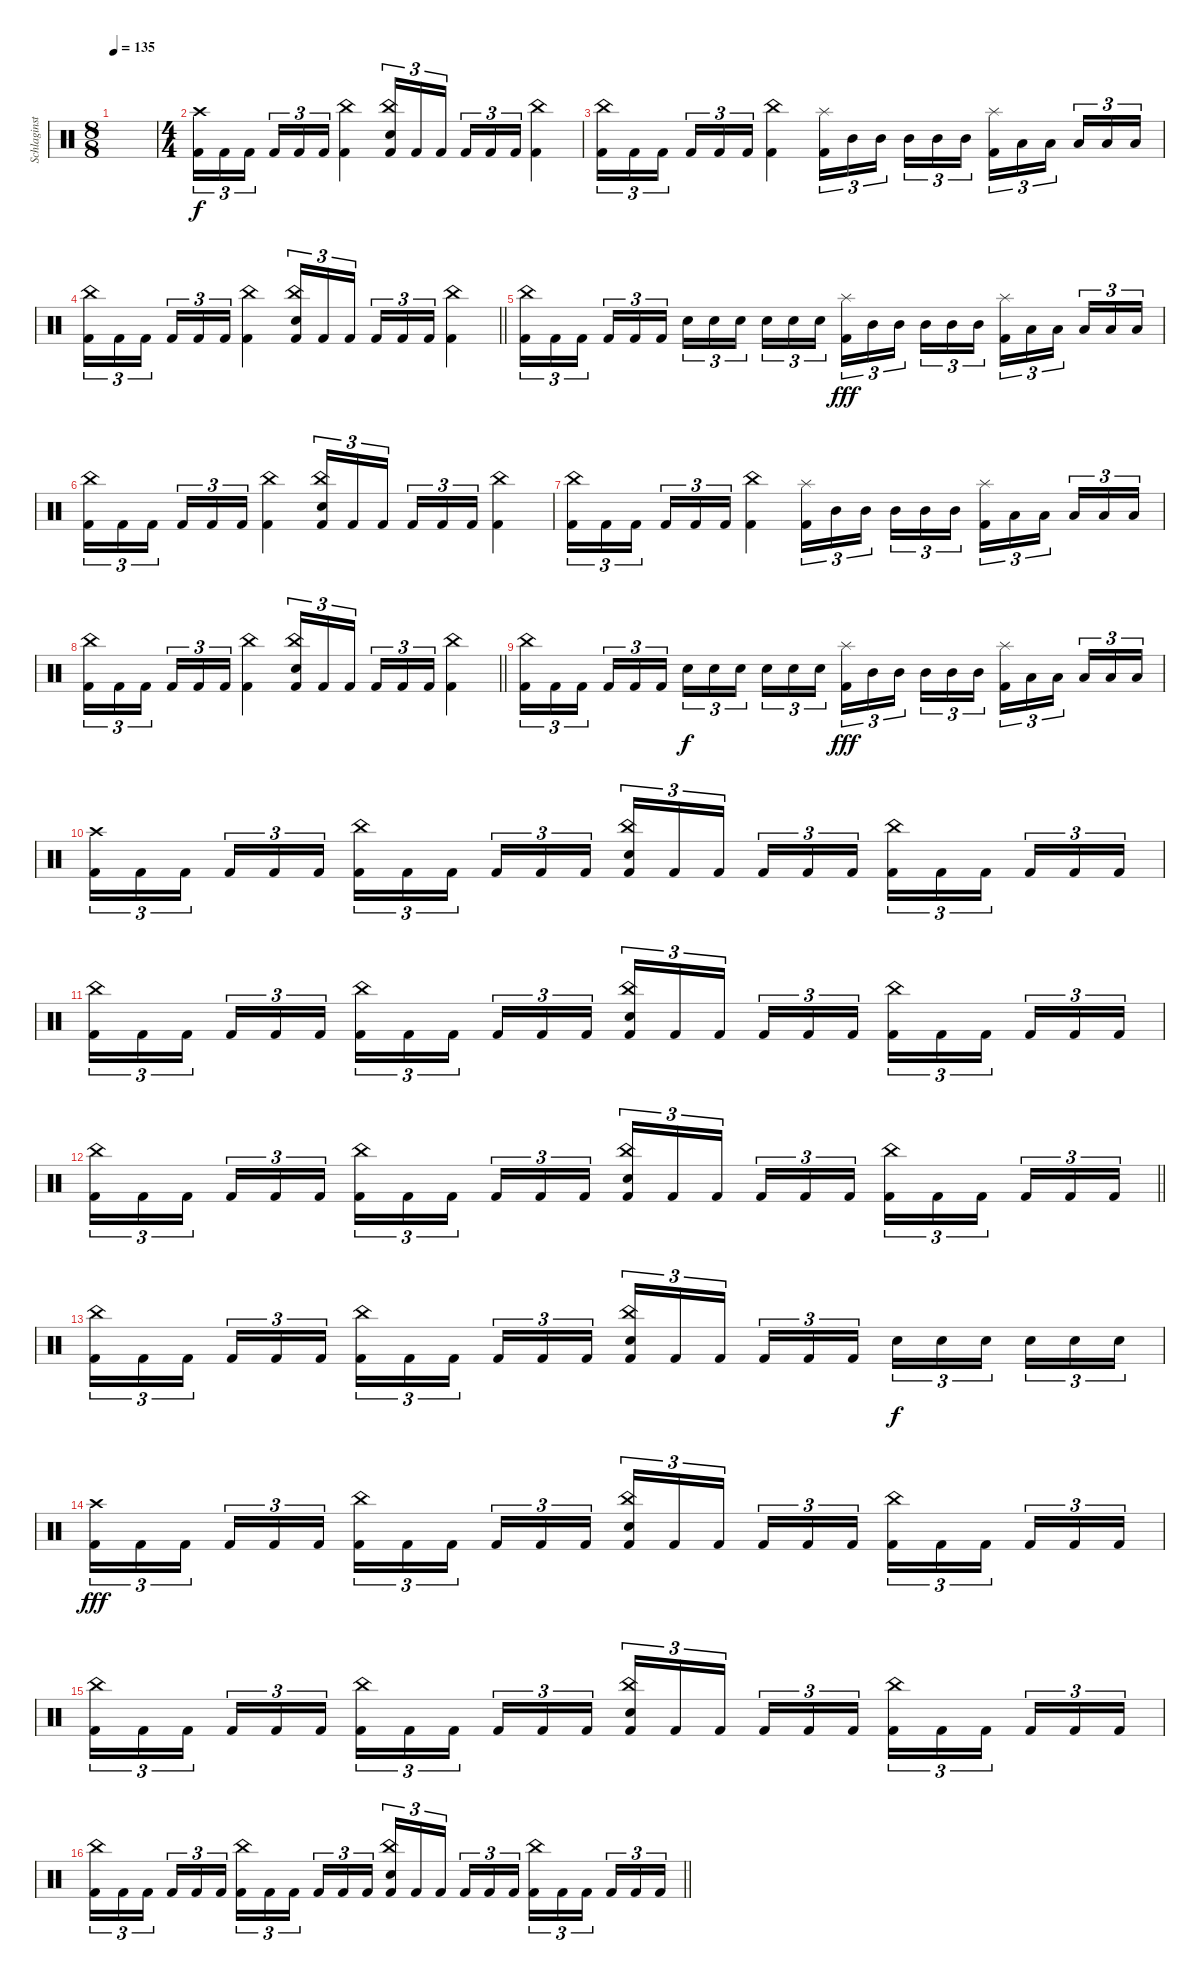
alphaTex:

\track ("Schlaginstrumente - Auswahl" "Schlaginst") {instrument percussion}
\staff {score}
\articulation defaults
\ts (8 8)
\tempo 135
\clef neutral
\ks c
|
\ts (4 4)
("Crash high (hit)" "Kick (hit) 2").16{tu (3 2)} "Kick (hit) 2".16{tu (3 2)} "Kick (hit) 2".16{tu (3 2) beam splitsecondary} "Kick (hit) 2".16{tu (3 2)} "Kick (hit) 2".16{tu (3 2)} "Kick (hit) 2".16{tu (3 2)} ("China (hit)" "Kick (hit) 2").4 ("China (hit)" "Snare (hit) 2" "Kick (hit) 2").16{tu (3 2)} "Kick (hit) 2".16{tu (3 2)} "Kick (hit) 2".16{tu (3 2) beam splitsecondary} "Kick (hit) 2".16{tu (3 2)} "Kick (hit) 2".16{tu (3 2)} "Kick (hit) 2".16{tu (3 2)} ("China (hit)" "Kick (hit) 2").4 |
("China (hit)" "Kick (hit) 2").16{tu (3 2)} "Kick (hit) 2".16{tu (3 2)} "Kick (hit) 2".16{tu (3 2) beam splitsecondary} "Kick (hit) 2".16{tu (3 2)} "Kick (hit) 2".16{tu (3 2)} "Kick (hit) 2".16{tu (3 2)} ("China (hit)" "Kick (hit) 2").4 ("Splash (hit)" "Kick (hit) 2").16{tu (3 2)} "Mid Tom (hit)".16{tu (3 2)} "Mid Tom (hit)".16{tu (3 2) beam splitsecondary} "Mid Tom (hit)".16{tu (3 2)} "Mid Tom (hit)".16{tu (3 2)} "Mid Tom (hit)".16{tu (3 2)} ("Splash (hit)" "Kick (hit) 2").16{tu (3 2)} "Low Tom (hit)".16{tu (3 2)} "Low Tom (hit)".16{tu (3 2) beam splitsecondary} "Low Tom (hit)".16{tu (3 2)} "Low Tom (hit)".16{tu (3 2)} "Low Tom (hit)".16{tu (3 2)} |
\barLineRight lightlight
("China (hit)" "Kick (hit) 2").16{tu (3 2)} "Kick (hit) 2".16{tu (3 2)} "Kick (hit) 2".16{tu (3 2) beam splitsecondary} "Kick (hit) 2".16{tu (3 2)} "Kick (hit) 2".16{tu (3 2)} "Kick (hit) 2".16{tu (3 2)} ("China (hit)" "Kick (hit) 2").4 ("China (hit)" "Snare (hit) 2" "Kick (hit) 2").16{tu (3 2)} "Kick (hit) 2".16{tu (3 2)} "Kick (hit) 2".16{tu (3 2) beam splitsecondary} "Kick (hit) 2".16{tu (3 2)} "Kick (hit) 2".16{tu (3 2)} "Kick (hit) 2".16{tu (3 2)} ("China (hit)" "Kick (hit) 2").4 |
("China (hit)" "Kick (hit) 2").16{tu (3 2)} "Kick (hit) 2".16{tu (3 2)} "Kick (hit) 2".16{tu (3 2) beam splitsecondary} "Kick (hit) 2".16{tu (3 2)} "Kick (hit) 2".16{tu (3 2)} "Kick (hit) 2".16{tu (3 2)} "Snare (hit) 2".16{tu (3 2) dy f} "Snare (hit) 2".16{tu (3 2)} "Snare (hit) 2".16{tu (3 2) beam splitsecondary} "Snare (hit) 2".16{tu (3 2)} "Snare (hit) 2".16{tu (3 2)} "Snare (hit) 2".16{tu (3 2)} ("Splash (hit)" "Kick (hit) 2").16{tu (3 2) dy fff} "Mid Tom (hit)".16{tu (3 2)} "Mid Tom (hit)".16{tu (3 2) beam splitsecondary} "Mid Tom (hit)".16{tu (3 2)} "Mid Tom (hit)".16{tu (3 2)} "Mid Tom (hit)".16{tu (3 2)} ("Splash (hit)" "Kick (hit) 2").16{tu (3 2)} "Low Tom (hit)".16{tu (3 2)} "Low Tom (hit)".16{tu (3 2) beam splitsecondary} "Low Tom (hit)".16{tu (3 2)} "Low Tom (hit)".16{tu (3 2)} "Low Tom (hit)".16{tu (3 2)} |
("China (hit)" "Kick (hit) 2").16{tu (3 2)} "Kick (hit) 2".16{tu (3 2)} "Kick (hit) 2".16{tu (3 2) beam splitsecondary} "Kick (hit) 2".16{tu (3 2)} "Kick (hit) 2".16{tu (3 2)} "Kick (hit) 2".16{tu (3 2)} ("China (hit)" "Kick (hit) 2").4 ("China (hit)" "Snare (hit) 2" "Kick (hit) 2").16{tu (3 2)} "Kick (hit) 2".16{tu (3 2)} "Kick (hit) 2".16{tu (3 2) beam splitsecondary} "Kick (hit) 2".16{tu (3 2)} "Kick (hit) 2".16{tu (3 2)} "Kick (hit) 2".16{tu (3 2)} ("China (hit)" "Kick (hit) 2").4 |
("China (hit)" "Kick (hit) 2").16{tu (3 2)} "Kick (hit) 2".16{tu (3 2)} "Kick (hit) 2".16{tu (3 2) beam splitsecondary} "Kick (hit) 2".16{tu (3 2)} "Kick (hit) 2".16{tu (3 2)} "Kick (hit) 2".16{tu (3 2)} ("China (hit)" "Kick (hit) 2").4 ("Splash (hit)" "Kick (hit) 2").16{tu (3 2)} "Mid Tom (hit)".16{tu (3 2)} "Mid Tom (hit)".16{tu (3 2) beam splitsecondary} "Mid Tom (hit)".16{tu (3 2)} "Mid Tom (hit)".16{tu (3 2)} "Mid Tom (hit)".16{tu (3 2)} ("Splash (hit)" "Kick (hit) 2").16{tu (3 2)} "Low Tom (hit)".16{tu (3 2)} "Low Tom (hit)".16{tu (3 2) beam splitsecondary} "Low Tom (hit)".16{tu (3 2)} "Low Tom (hit)".16{tu (3 2)} "Low Tom (hit)".16{tu (3 2)} |
\barLineRight lightlight
("China (hit)" "Kick (hit) 2").16{tu (3 2)} "Kick (hit) 2".16{tu (3 2)} "Kick (hit) 2".16{tu (3 2) beam splitsecondary} "Kick (hit) 2".16{tu (3 2)} "Kick (hit) 2".16{tu (3 2)} "Kick (hit) 2".16{tu (3 2)} ("China (hit)" "Kick (hit) 2").4 ("China (hit)" "Snare (hit) 2" "Kick (hit) 2").16{tu (3 2)} "Kick (hit) 2".16{tu (3 2)} "Kick (hit) 2".16{tu (3 2) beam splitsecondary} "Kick (hit) 2".16{tu (3 2)} "Kick (hit) 2".16{tu (3 2)} "Kick (hit) 2".16{tu (3 2)} ("China (hit)" "Kick (hit) 2").4 |
("China (hit)" "Kick (hit) 2").16{tu (3 2)} "Kick (hit) 2".16{tu (3 2)} "Kick (hit) 2".16{tu (3 2) beam splitsecondary} "Kick (hit) 2".16{tu (3 2)} "Kick (hit) 2".16{tu (3 2)} "Kick (hit) 2".16{tu (3 2)} "Snare (hit) 2".16{tu (3 2) dy f} "Snare (hit) 2".16{tu (3 2)} "Snare (hit) 2".16{tu (3 2) beam splitsecondary} "Snare (hit) 2".16{tu (3 2)} "Snare (hit) 2".16{tu (3 2)} "Snare (hit) 2".16{tu (3 2)} ("Splash (hit)" "Kick (hit) 2").16{tu (3 2) dy fff} "Mid Tom (hit)".16{tu (3 2)} "Mid Tom (hit)".16{tu (3 2) beam splitsecondary} "Mid Tom (hit)".16{tu (3 2)} "Mid Tom (hit)".16{tu (3 2)} "Mid Tom (hit)".16{tu (3 2)} ("Splash (hit)" "Kick (hit) 2").16{tu (3 2)} "Low Tom (hit)".16{tu (3 2)} "Low Tom (hit)".16{tu (3 2) beam splitsecondary} "Low Tom (hit)".16{tu (3 2)} "Low Tom (hit)".16{tu (3 2)} "Low Tom (hit)".16{tu (3 2)} |
("Crash high (hit)" "Kick (hit) 2").16{tu (3 2)} "Kick (hit) 2".16{tu (3 2)} "Kick (hit) 2".16{tu (3 2) beam splitsecondary} "Kick (hit) 2".16{tu (3 2)} "Kick (hit) 2".16{tu (3 2)} "Kick (hit) 2".16{tu (3 2)} ("China (hit)" "Kick (hit) 2").16{tu (3 2)} "Kick (hit) 2".16{tu (3 2)} "Kick (hit) 2".16{tu (3 2) beam splitsecondary} "Kick (hit) 2".16{tu (3 2)} "Kick (hit) 2".16{tu (3 2)} "Kick (hit) 2".16{tu (3 2)} ("China (hit)" "Snare (hit) 2" "Kick (hit) 2").16{tu (3 2)} "Kick (hit) 2".16{tu (3 2)} "Kick (hit) 2".16{tu (3 2) beam splitsecondary} "Kick (hit) 2".16{tu (3 2)} "Kick (hit) 2".16{tu (3 2)} "Kick (hit) 2".16{tu (3 2)} ("China (hit)" "Kick (hit) 2").16{tu (3 2)} "Kick (hit) 2".16{tu (3 2)} "Kick (hit) 2".16{tu (3 2) beam splitsecondary} "Kick (hit) 2".16{tu (3 2)} "Kick (hit) 2".16{tu (3 2)} "Kick (hit) 2".16{tu (3 2)} |
("China (hit)" "Kick (hit) 2").16{tu (3 2)} "Kick (hit) 2".16{tu (3 2)} "Kick (hit) 2".16{tu (3 2) beam splitsecondary} "Kick (hit) 2".16{tu (3 2)} "Kick (hit) 2".16{tu (3 2)} "Kick (hit) 2".16{tu (3 2)} ("China (hit)" "Kick (hit) 2").16{tu (3 2)} "Kick (hit) 2".16{tu (3 2)} "Kick (hit) 2".16{tu (3 2) beam splitsecondary} "Kick (hit) 2".16{tu (3 2)} "Kick (hit) 2".16{tu (3 2)} "Kick (hit) 2".16{tu (3 2)} ("China (hit)" "Snare (hit) 2" "Kick (hit) 2").16{tu (3 2)} "Kick (hit) 2".16{tu (3 2)} "Kick (hit) 2".16{tu (3 2) beam splitsecondary} "Kick (hit) 2".16{tu (3 2)} "Kick (hit) 2".16{tu (3 2)} "Kick (hit) 2".16{tu (3 2)} ("China (hit)" "Kick (hit) 2").16{tu (3 2)} "Kick (hit) 2".16{tu (3 2)} "Kick (hit) 2".16{tu (3 2) beam splitsecondary} "Kick (hit) 2".16{tu (3 2)} "Kick (hit) 2".16{tu (3 2)} "Kick (hit) 2".16{tu (3 2)} |
\barLineRight lightlight
("China (hit)" "Kick (hit) 2").16{tu (3 2)} "Kick (hit) 2".16{tu (3 2)} "Kick (hit) 2".16{tu (3 2) beam splitsecondary} "Kick (hit) 2".16{tu (3 2)} "Kick (hit) 2".16{tu (3 2)} "Kick (hit) 2".16{tu (3 2)} ("China (hit)" "Kick (hit) 2").16{tu (3 2)} "Kick (hit) 2".16{tu (3 2)} "Kick (hit) 2".16{tu (3 2) beam splitsecondary} "Kick (hit) 2".16{tu (3 2)} "Kick (hit) 2".16{tu (3 2)} "Kick (hit) 2".16{tu (3 2)} ("China (hit)" "Snare (hit) 2" "Kick (hit) 2").16{tu (3 2)} "Kick (hit) 2".16{tu (3 2)} "Kick (hit) 2".16{tu (3 2) beam splitsecondary} "Kick (hit) 2".16{tu (3 2)} "Kick (hit) 2".16{tu (3 2)} "Kick (hit) 2".16{tu (3 2)} ("China (hit)" "Kick (hit) 2").16{tu (3 2)} "Kick (hit) 2".16{tu (3 2)} "Kick (hit) 2".16{tu (3 2) beam splitsecondary} "Kick (hit) 2".16{tu (3 2)} "Kick (hit) 2".16{tu (3 2)} "Kick (hit) 2".16{tu (3 2)} |
("China (hit)" "Kick (hit) 2").16{tu (3 2)} "Kick (hit) 2".16{tu (3 2)} "Kick (hit) 2".16{tu (3 2) beam splitsecondary} "Kick (hit) 2".16{tu (3 2)} "Kick (hit) 2".16{tu (3 2)} "Kick (hit) 2".16{tu (3 2)} ("China (hit)" "Kick (hit) 2").16{tu (3 2)} "Kick (hit) 2".16{tu (3 2)} "Kick (hit) 2".16{tu (3 2) beam splitsecondary} "Kick (hit) 2".16{tu (3 2)} "Kick (hit) 2".16{tu (3 2)} "Kick (hit) 2".16{tu (3 2)} ("China (hit)" "Snare (hit) 2" "Kick (hit) 2").16{tu (3 2)} "Kick (hit) 2".16{tu (3 2)} "Kick (hit) 2".16{tu (3 2) beam splitsecondary} "Kick (hit) 2".16{tu (3 2)} "Kick (hit) 2".16{tu (3 2)} "Kick (hit) 2".16{tu (3 2)} "Snare (hit) 2".16{tu (3 2) dy f} "Snare (hit) 2".16{tu (3 2)} "Snare (hit) 2".16{tu (3 2) beam splitsecondary} "Snare (hit) 2".16{tu (3 2)} "Snare (hit) 2".16{tu (3 2)} "Snare (hit) 2".16{tu (3 2)} |
("Crash high (hit)" "Kick (hit) 2").16{tu (3 2) dy fff} "Kick (hit) 2".16{tu (3 2)} "Kick (hit) 2".16{tu (3 2) beam splitsecondary} "Kick (hit) 2".16{tu (3 2)} "Kick (hit) 2".16{tu (3 2)} "Kick (hit) 2".16{tu (3 2)} ("China (hit)" "Kick (hit) 2").16{tu (3 2)} "Kick (hit) 2".16{tu (3 2)} "Kick (hit) 2".16{tu (3 2) beam splitsecondary} "Kick (hit) 2".16{tu (3 2)} "Kick (hit) 2".16{tu (3 2)} "Kick (hit) 2".16{tu (3 2)} ("China (hit)" "Snare (hit) 2" "Kick (hit) 2").16{tu (3 2)} "Kick (hit) 2".16{tu (3 2)} "Kick (hit) 2".16{tu (3 2) beam splitsecondary} "Kick (hit) 2".16{tu (3 2)} "Kick (hit) 2".16{tu (3 2)} "Kick (hit) 2".16{tu (3 2)} ("China (hit)" "Kick (hit) 2").16{tu (3 2)} "Kick (hit) 2".16{tu (3 2)} "Kick (hit) 2".16{tu (3 2) beam splitsecondary} "Kick (hit) 2".16{tu (3 2)} "Kick (hit) 2".16{tu (3 2)} "Kick (hit) 2".16{tu (3 2)} |
("China (hit)" "Kick (hit) 2").16{tu (3 2)} "Kick (hit) 2".16{tu (3 2)} "Kick (hit) 2".16{tu (3 2) beam splitsecondary} "Kick (hit) 2".16{tu (3 2)} "Kick (hit) 2".16{tu (3 2)} "Kick (hit) 2".16{tu (3 2)} ("China (hit)" "Kick (hit) 2").16{tu (3 2)} "Kick (hit) 2".16{tu (3 2)} "Kick (hit) 2".16{tu (3 2) beam splitsecondary} "Kick (hit) 2".16{tu (3 2)} "Kick (hit) 2".16{tu (3 2)} "Kick (hit) 2".16{tu (3 2)} ("China (hit)" "Snare (hit) 2" "Kick (hit) 2").16{tu (3 2)} "Kick (hit) 2".16{tu (3 2)} "Kick (hit) 2".16{tu (3 2) beam splitsecondary} "Kick (hit) 2".16{tu (3 2)} "Kick (hit) 2".16{tu (3 2)} "Kick (hit) 2".16{tu (3 2)} ("China (hit)" "Kick (hit) 2").16{tu (3 2)} "Kick (hit) 2".16{tu (3 2)} "Kick (hit) 2".16{tu (3 2) beam splitsecondary} "Kick (hit) 2".16{tu (3 2)} "Kick (hit) 2".16{tu (3 2)} "Kick (hit) 2".16{tu (3 2)} |
\barLineRight lightlight
("China (hit)" "Kick (hit) 2").16{tu (3 2)} "Kick (hit) 2".16{tu (3 2)} "Kick (hit) 2".16{tu (3 2) beam splitsecondary} "Kick (hit) 2".16{tu (3 2)} "Kick (hit) 2".16{tu (3 2)} "Kick (hit) 2".16{tu (3 2)} ("China (hit)" "Kick (hit) 2").16{tu (3 2)} "Kick (hit) 2".16{tu (3 2)} "Kick (hit) 2".16{tu (3 2) beam splitsecondary} "Kick (hit) 2".16{tu (3 2)} "Kick (hit) 2".16{tu (3 2)} "Kick (hit) 2".16{tu (3 2)} ("China (hit)" "Snare (hit) 2" "Kick (hit) 2").16{tu (3 2)} "Kick (hit) 2".16{tu (3 2)} "Kick (hit) 2".16{tu (3 2) beam splitsecondary} "Kick (hit) 2".16{tu (3 2)} "Kick (hit) 2".16{tu (3 2)} "Kick (hit) 2".16{tu (3 2)} ("China (hit)" "Kick (hit) 2").16{tu (3 2)} "Kick (hit) 2".16{tu (3 2)} "Kick (hit) 2".16{tu (3 2) beam splitsecondary} "Kick (hit) 2".16{tu (3 2)} "Kick (hit) 2".16{tu (3 2)} "Kick (hit) 2".16{tu (3 2)}
